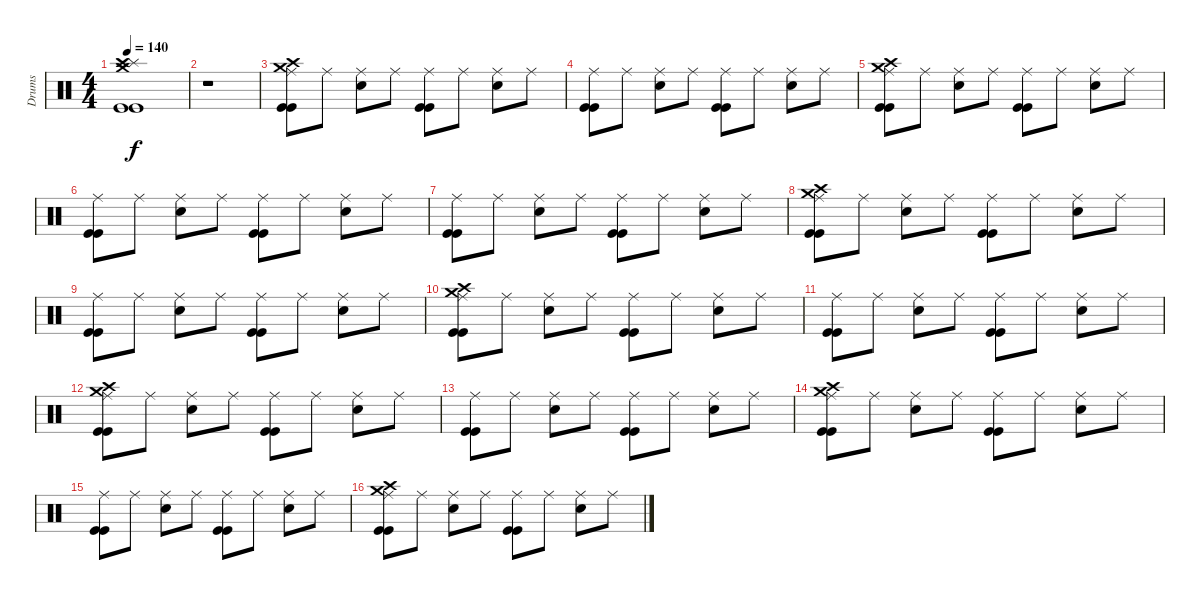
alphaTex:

\track ("Drums" "Drums") {instrument percussion}
\staff {score}
\articulation defaults
\ts (4 4)
\tempo 140
\clef neutral
\ks c
("Splash (hit)" "Crash high (hit)" "Crash medium (hit)" "Kick (hit)" "Kick (hit)").1{dy f} |
r.1 |
("Ride (middle)" "Crash high (hit)" "Crash medium (hit)" "Kick (hit)" "Kick (hit)").8 "Ride (middle)".8 ("Ride (middle)" "Snare (hit) 2").8 "Ride (middle)".8 ("Ride (middle)" "Kick (hit)" "Kick (hit)").8 "Ride (middle)".8 ("Ride (middle)" "Snare (hit) 2").8 "Ride (middle)".8 |
("Ride (middle)" "Kick (hit)" "Kick (hit)").8 "Ride (middle)".8 ("Ride (middle)" "Snare (hit) 2").8 "Ride (middle)".8 ("Ride (middle)" "Kick (hit)" "Kick (hit)").8 "Ride (middle)".8 ("Ride (middle)" "Snare (hit) 2").8 "Ride (middle)".8 |
("Ride (middle)" "Crash high (hit)" "Crash medium (hit)" "Kick (hit)" "Kick (hit)").8 "Ride (middle)".8 ("Ride (middle)" "Snare (hit) 2").8 "Ride (middle)".8 ("Ride (middle)" "Kick (hit)" "Kick (hit)").8 "Ride (middle)".8 ("Ride (middle)" "Snare (hit) 2").8 "Ride (middle)".8 |
("Ride (middle)" "Kick (hit)" "Kick (hit)").8 "Ride (middle)".8 ("Ride (middle)" "Snare (hit) 2").8 "Ride (middle)".8 ("Ride (middle)" "Kick (hit)" "Kick (hit)").8 "Ride (middle)".8 ("Ride (middle)" "Snare (hit) 2").8 "Ride (middle)".8 |
("Ride (middle)" "Kick (hit)" "Kick (hit)").8 "Ride (middle)".8 ("Ride (middle)" "Snare (hit) 2").8 "Ride (middle)".8 ("Ride (middle)" "Kick (hit)" "Kick (hit)").8 "Ride (middle)".8 ("Ride (middle)" "Snare (hit) 2").8 "Ride (middle)".8 |
("Ride (middle)" "Crash high (hit)" "Crash medium (hit)" "Kick (hit)" "Kick (hit)").8 "Ride (middle)".8 ("Ride (middle)" "Snare (hit) 2").8 "Ride (middle)".8 ("Ride (middle)" "Kick (hit)" "Kick (hit)").8 "Ride (middle)".8 ("Ride (middle)" "Snare (hit) 2").8 "Ride (middle)".8 |
("Ride (middle)" "Kick (hit)" "Kick (hit)").8 "Ride (middle)".8 ("Ride (middle)" "Snare (hit) 2").8 "Ride (middle)".8 ("Ride (middle)" "Kick (hit)" "Kick (hit)").8 "Ride (middle)".8 ("Ride (middle)" "Snare (hit) 2").8 "Ride (middle)".8 |
("Ride (middle)" "Crash high (hit)" "Crash medium (hit)" "Kick (hit)" "Kick (hit)").8 "Ride (middle)".8 ("Ride (middle)" "Snare (hit) 2").8 "Ride (middle)".8 ("Ride (middle)" "Kick (hit)" "Kick (hit)").8 "Ride (middle)".8 ("Ride (middle)" "Snare (hit) 2").8 "Ride (middle)".8 |
("Ride (middle)" "Kick (hit)" "Kick (hit)").8 "Ride (middle)".8 ("Ride (middle)" "Snare (hit) 2").8 "Ride (middle)".8 ("Ride (middle)" "Kick (hit)" "Kick (hit)").8 "Ride (middle)".8 ("Ride (middle)" "Snare (hit) 2").8 "Ride (middle)".8 |
("Ride (middle)" "Crash high (hit)" "Crash medium (hit)" "Kick (hit)" "Kick (hit)").8 "Ride (middle)".8 ("Ride (middle)" "Snare (hit) 2").8 "Ride (middle)".8 ("Ride (middle)" "Kick (hit)" "Kick (hit)").8 "Ride (middle)".8 ("Ride (middle)" "Snare (hit) 2").8 "Ride (middle)".8 |
("Ride (middle)" "Kick (hit)" "Kick (hit)").8 "Ride (middle)".8 ("Ride (middle)" "Snare (hit) 2").8 "Ride (middle)".8 ("Ride (middle)" "Kick (hit)" "Kick (hit)").8 "Ride (middle)".8 ("Ride (middle)" "Snare (hit) 2").8 "Ride (middle)".8 |
("Ride (middle)" "Crash high (hit)" "Crash medium (hit)" "Kick (hit)" "Kick (hit)").8 "Ride (middle)".8 ("Ride (middle)" "Snare (hit) 2").8 "Ride (middle)".8 ("Ride (middle)" "Kick (hit)" "Kick (hit)").8 "Ride (middle)".8 ("Ride (middle)" "Snare (hit) 2").8 "Ride (middle)".8 |
("Ride (middle)" "Kick (hit)" "Kick (hit)").8 "Ride (middle)".8 ("Ride (middle)" "Snare (hit) 2").8 "Ride (middle)".8 ("Ride (middle)" "Kick (hit)" "Kick (hit)").8 "Ride (middle)".8 ("Ride (middle)" "Snare (hit) 2").8 "Ride (middle)".8 |
("Ride (middle)" "Crash high (hit)" "Crash medium (hit)" "Kick (hit)" "Kick (hit)").8 "Ride (middle)".8 ("Ride (middle)" "Snare (hit) 2").8 "Ride (middle)".8 ("Ride (middle)" "Kick (hit)" "Kick (hit)").8 "Ride (middle)".8 ("Ride (middle)" "Snare (hit) 2").8 "Ride (middle)".8
